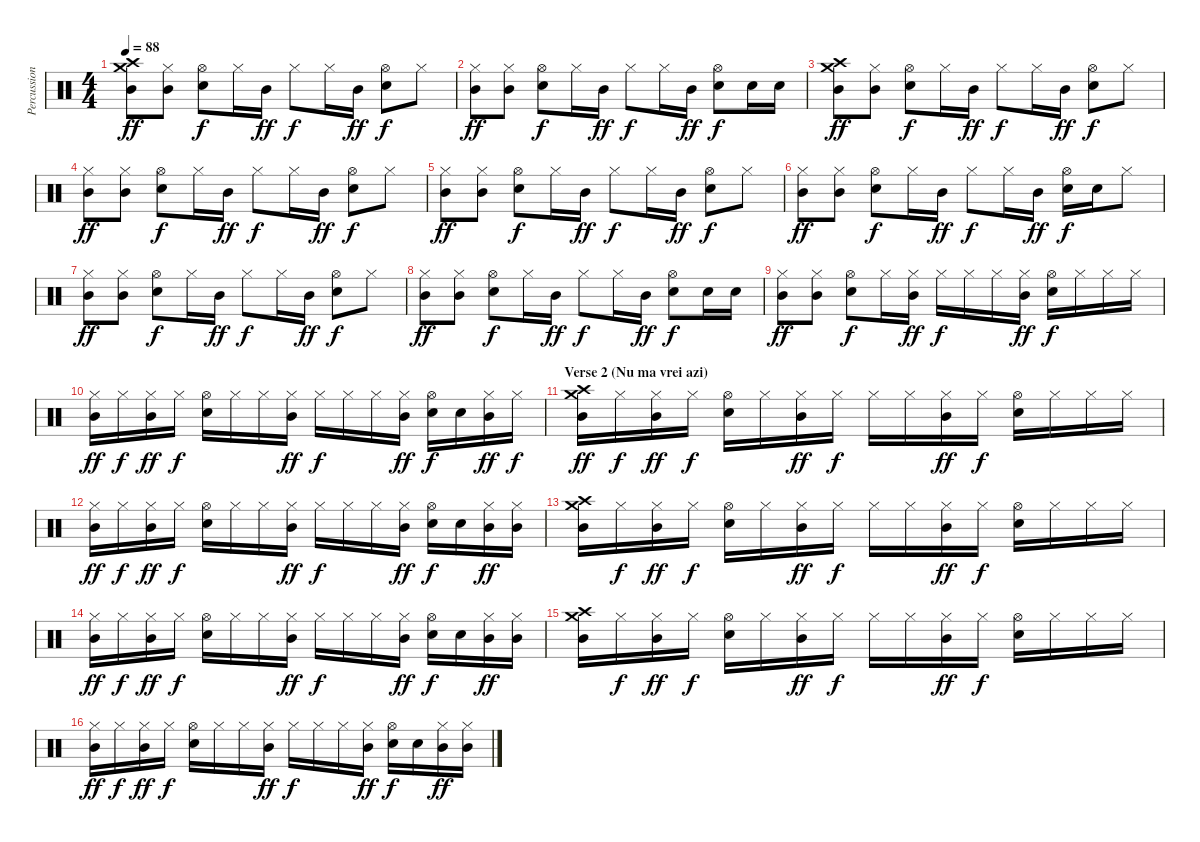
\track ("Percussion" "Percussion") {instrument percussion}
\staff {score}
\articulation defaults
\ts (4 4)
\tempo 88
\clef neutral
\ks c
("Crash medium (hit)" "Crash high (hit)" "Mid Tom (hit)").8{dy ff} ("Hi-Hat (closed)" "Mid Tom (hit)").8 ("Hi-Hat (open)" "Electric Snare (hit)").8{dy f} "Hi-Hat (closed)".16 "Mid Tom (hit)".16{dy ff} "Hi-Hat (closed)".8{dy f} "Hi-Hat (closed)".16 "Mid Tom (hit)".16{dy ff} ("Hi-Hat (open)" "Electric Snare (hit)").8{dy f} "Hi-Hat (closed)".8 |
("Hi-Hat (closed)" "Mid Tom (hit)").8{dy ff} ("Hi-Hat (closed)" "Mid Tom (hit)").8 ("Hi-Hat (open)" "Electric Snare (hit)").8{dy f} "Hi-Hat (closed)".16 "Mid Tom (hit)".16{dy ff} "Hi-Hat (closed)".8{dy f} "Hi-Hat (closed)".16 "Mid Tom (hit)".16{dy ff} ("Hi-Hat (open)" "Electric Snare (hit)").8{dy f} "Metronome (bell)".16 "Metronome (bell)".16 |
("Crash medium (hit)" "Crash high (hit)" "Mid Tom (hit)").8{dy ff} ("Hi-Hat (closed)" "Mid Tom (hit)").8 ("Hi-Hat (open)" "Electric Snare (hit)").8{dy f} "Hi-Hat (closed)".16 "Mid Tom (hit)".16{dy ff} "Hi-Hat (closed)".8{dy f} "Hi-Hat (closed)".16 "Mid Tom (hit)".16{dy ff} ("Hi-Hat (open)" "Electric Snare (hit)").8{dy f} "Hi-Hat (closed)".8 |
("Hi-Hat (closed)" "Mid Tom (hit)").8{dy ff} ("Hi-Hat (closed)" "Mid Tom (hit)").8 ("Hi-Hat (open)" "Electric Snare (hit)").8{dy f} "Hi-Hat (closed)".16 "Mid Tom (hit)".16{dy ff} "Hi-Hat (closed)".8{dy f} "Hi-Hat (closed)".16 "Mid Tom (hit)".16{dy ff} ("Hi-Hat (open)" "Electric Snare (hit)").8{dy f} "Hi-Hat (closed)".8 |
("Hi-Hat (closed)" "Mid Tom (hit)").8{dy ff} ("Hi-Hat (closed)" "Mid Tom (hit)").8 ("Hi-Hat (open)" "Electric Snare (hit)").8{dy f} "Hi-Hat (closed)".16 "Mid Tom (hit)".16{dy ff} "Hi-Hat (closed)".8{dy f} "Hi-Hat (closed)".16 "Mid Tom (hit)".16{dy ff} ("Hi-Hat (open)" "Electric Snare (hit)").8{dy f} "Hi-Hat (closed)".8 |
("Hi-Hat (closed)" "Mid Tom (hit)").8{dy ff} ("Hi-Hat (closed)" "Mid Tom (hit)").8 ("Hi-Hat (open)" "Electric Snare (hit)").8{dy f} "Hi-Hat (closed)".16 "Mid Tom (hit)".16{dy ff} "Hi-Hat (closed)".8{dy f} "Hi-Hat (closed)".16 "Mid Tom (hit)".16{dy ff} ("Hi-Hat (open)" "Electric Snare (hit)").16{dy f} "Electric Snare (hit)".16 "Hi-Hat (closed)".8 |
("Hi-Hat (closed)" "Mid Tom (hit)").8{dy ff} ("Hi-Hat (closed)" "Mid Tom (hit)").8 ("Hi-Hat (open)" "Electric Snare (hit)").8{dy f} "Hi-Hat (closed)".16 "Mid Tom (hit)".16{dy ff} "Hi-Hat (closed)".8{dy f} "Hi-Hat (closed)".16 "Mid Tom (hit)".16{dy ff} ("Hi-Hat (open)" "Electric Snare (hit)").8{dy f} "Hi-Hat (closed)".8 |
("Hi-Hat (closed)" "Mid Tom (hit)").8{dy ff} ("Hi-Hat (closed)" "Mid Tom (hit)").8 ("Hi-Hat (open)" "Electric Snare (hit)").8{dy f} "Hi-Hat (closed)".16 "Mid Tom (hit)".16{dy ff} "Hi-Hat (closed)".8{dy f} "Hi-Hat (closed)".16 "Mid Tom (hit)".16{dy ff} ("Hi-Hat (open)" "Electric Snare (hit)").8{dy f} "Metronome (bell)".16 "Metronome (bell)".16 |
("Hi-Hat (closed)" "Mid Tom (hit)").8{dy ff} ("Hi-Hat (closed)" "Mid Tom (hit)").8 ("Hi-Hat (open)" "Electric Snare (hit)").8{dy f} "Hi-Hat (closed)".16 ("Hi-Hat (closed)" "Mid Tom (hit)").16{dy ff} "Hi-Hat (closed)".16{dy f} "Hi-Hat (closed)".16 "Hi-Hat (closed)".16 ("Hi-Hat (closed)" "Mid Tom (hit)").16{dy ff} ("Hi-Hat (open)" "Electric Snare (hit)").16{dy f} "Hi-Hat (closed)".16 "Hi-Hat (closed)".16 "Hi-Hat (closed)".16 |
("Hi-Hat (closed)" "Mid Tom (hit)").16{dy ff} "Hi-Hat (closed)".16{dy f} ("Hi-Hat (closed)" "Mid Tom (hit)").16{dy ff} "Hi-Hat (closed)".16{dy f} ("Hi-Hat (open)" "Electric Snare (hit)").16 "Hi-Hat (closed)".16 "Hi-Hat (closed)".16 ("Hi-Hat (closed)" "Mid Tom (hit)").16{dy ff} "Hi-Hat (closed)".16{dy f} "Hi-Hat (closed)".16 "Hi-Hat (closed)".16 ("Hi-Hat (closed)" "Mid Tom (hit)").16{dy ff} ("Hi-Hat (open)" "Electric Snare (hit)").16{dy f} "Electric Snare (hit)".16 ("Hi-Hat (closed)" "Mid Tom (hit)").16{dy ff} "Hi-Hat (closed)".16{dy f} |
\section ("" "Verse 2 (Nu ma vrei azi)")
("Crash medium (hit)" "Crash high (hit)" "Mid Tom (hit)").16{dy ff} "Hi-Hat (closed)".16{dy f} ("Hi-Hat (closed)" "Mid Tom (hit)").16{dy ff} "Hi-Hat (closed)".16{dy f} ("Hi-Hat (open)" "Electric Snare (hit)").16 "Hi-Hat (closed)".16 ("Hi-Hat (closed)" "Mid Tom (hit)").16{dy ff} "Hi-Hat (closed)".16{dy f} "Hi-Hat (closed)".16 "Hi-Hat (closed)".16 ("Hi-Hat (closed)" "Mid Tom (hit)").16{dy ff} "Hi-Hat (closed)".16{dy f} ("Hi-Hat (open)" "Electric Snare (hit)").16 "Hi-Hat (closed)".16 "Hi-Hat (closed)".16 "Hi-Hat (closed)".16 |
("Hi-Hat (closed)" "Mid Tom (hit)").16{dy ff} "Hi-Hat (closed)".16{dy f} ("Hi-Hat (closed)" "Mid Tom (hit)").16{dy ff} "Hi-Hat (closed)".16{dy f} ("Hi-Hat (open)" "Electric Snare (hit)").16 "Hi-Hat (closed)".16 "Hi-Hat (closed)".16 ("Hi-Hat (closed)" "Mid Tom (hit)").16{dy ff} "Hi-Hat (closed)".16{dy f} "Hi-Hat (closed)".16 "Hi-Hat (closed)".16 ("Hi-Hat (closed)" "Mid Tom (hit)").16{dy ff} ("Hi-Hat (open)" "Electric Snare (hit)").16{dy f} "Electric Snare (hit)".16 ("Hi-Hat (closed)" "Mid Tom (hit)").16{dy ff} ("Hi-Hat (closed)" "Mid Tom (hit)").16 |
("Crash medium (hit)" "Crash high (hit)" "Mid Tom (hit)").16 "Hi-Hat (closed)".16{dy f} ("Hi-Hat (closed)" "Mid Tom (hit)").16{dy ff} "Hi-Hat (closed)".16{dy f} ("Hi-Hat (open)" "Electric Snare (hit)").16 "Hi-Hat (closed)".16 ("Hi-Hat (closed)" "Mid Tom (hit)").16{dy ff} "Hi-Hat (closed)".16{dy f} "Hi-Hat (closed)".16 "Hi-Hat (closed)".16 ("Hi-Hat (closed)" "Mid Tom (hit)").16{dy ff} "Hi-Hat (closed)".16{dy f} ("Hi-Hat (open)" "Electric Snare (hit)").16 "Hi-Hat (closed)".16 "Hi-Hat (closed)".16 "Hi-Hat (closed)".16 |
("Hi-Hat (closed)" "Mid Tom (hit)").16{dy ff} "Hi-Hat (closed)".16{dy f} ("Hi-Hat (closed)" "Mid Tom (hit)").16{dy ff} "Hi-Hat (closed)".16{dy f} ("Hi-Hat (open)" "Electric Snare (hit)").16 "Hi-Hat (closed)".16 "Hi-Hat (closed)".16 ("Hi-Hat (closed)" "Mid Tom (hit)").16{dy ff} "Hi-Hat (closed)".16{dy f} "Hi-Hat (closed)".16 "Hi-Hat (closed)".16 ("Hi-Hat (closed)" "Mid Tom (hit)").16{dy ff} ("Hi-Hat (open)" "Electric Snare (hit)").16{dy f} "Electric Snare (hit)".16 ("Hi-Hat (closed)" "Mid Tom (hit)").16{dy ff} ("Hi-Hat (closed)" "Mid Tom (hit)").16 |
("Crash medium (hit)" "Crash high (hit)" "Mid Tom (hit)").16 "Hi-Hat (closed)".16{dy f} ("Hi-Hat (closed)" "Mid Tom (hit)").16{dy ff} "Hi-Hat (closed)".16{dy f} ("Hi-Hat (open)" "Electric Snare (hit)").16 "Hi-Hat (closed)".16 ("Hi-Hat (closed)" "Mid Tom (hit)").16{dy ff} "Hi-Hat (closed)".16{dy f} "Hi-Hat (closed)".16 "Hi-Hat (closed)".16 ("Hi-Hat (closed)" "Mid Tom (hit)").16{dy ff} "Hi-Hat (closed)".16{dy f} ("Hi-Hat (open)" "Electric Snare (hit)").16 "Hi-Hat (closed)".16 "Hi-Hat (closed)".16 "Hi-Hat (closed)".16 |
("Hi-Hat (closed)" "Mid Tom (hit)").16{dy ff} "Hi-Hat (closed)".16{dy f} ("Hi-Hat (closed)" "Mid Tom (hit)").16{dy ff} "Hi-Hat (closed)".16{dy f} ("Hi-Hat (open)" "Electric Snare (hit)").16 "Hi-Hat (closed)".16 "Hi-Hat (closed)".16 ("Hi-Hat (closed)" "Mid Tom (hit)").16{dy ff} "Hi-Hat (closed)".16{dy f} "Hi-Hat (closed)".16 "Hi-Hat (closed)".16 ("Hi-Hat (closed)" "Mid Tom (hit)").16{dy ff} ("Hi-Hat (open)" "Electric Snare (hit)").16{dy f} "Electric Snare (hit)".16 ("Hi-Hat (closed)" "Mid Tom (hit)").16{dy ff} ("Hi-Hat (closed)" "Mid Tom (hit)").16
